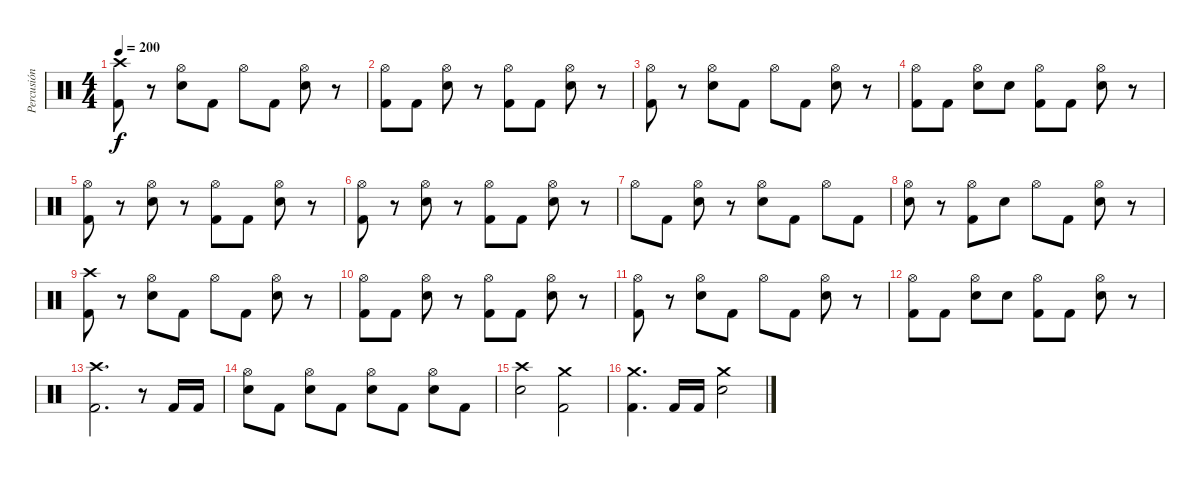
\track ("Percusión" "Percusión") {instrument percussion}
\staff {score}
\articulation defaults
\ts (4 4)
\tempo 200
\clef neutral
\ks c
("Kick (hit) 2" "Crash high (hit)").8{dy f} r.8 ("Snare (hit) 2" "Hi-Hat (open)").8 "Kick (hit) 2".8 "Hi-Hat (open)".8 "Kick (hit) 2".8 ("Snare (hit) 2" "Hi-Hat (open)").8 r.8 |
("Kick (hit) 2" "Hi-Hat (open)").8 "Kick (hit) 2".8 ("Snare (hit) 2" "Hi-Hat (open)").8 r.8 ("Kick (hit) 2" "Hi-Hat (open)").8 "Kick (hit) 2".8 ("Snare (hit) 2" "Hi-Hat (open)").8 r.8 |
("Kick (hit) 2" "Hi-Hat (open)").8 r.8 ("Snare (hit) 2" "Hi-Hat (open)").8 "Kick (hit) 2".8 "Hi-Hat (open)".8 "Kick (hit) 2".8 ("Snare (hit) 2" "Hi-Hat (open)").8 r.8 |
("Kick (hit) 2" "Hi-Hat (open)").8 "Kick (hit) 2".8 ("Snare (hit) 2" "Hi-Hat (open)").8 "Snare (hit) 2".8 ("Kick (hit) 2" "Hi-Hat (open)").8 "Kick (hit) 2".8 ("Snare (hit) 2" "Hi-Hat (open)").8 r.8 |
("Kick (hit) 2" "Hi-Hat (open)").8 r.8 ("Snare (hit) 2" "Hi-Hat (open)").8 r.8 ("Kick (hit) 2" "Hi-Hat (open)").8 "Kick (hit) 2".8 ("Snare (hit) 2" "Hi-Hat (open)").8 r.8 |
("Kick (hit) 2" "Hi-Hat (open)").8 r.8 ("Snare (hit) 2" "Hi-Hat (open)").8 r.8 ("Kick (hit) 2" "Hi-Hat (open)").8 "Kick (hit) 2".8 ("Snare (hit) 2" "Hi-Hat (open)").8 r.8 |
"Hi-Hat (open)".8 "Kick (hit) 2".8 ("Snare (hit) 2" "Hi-Hat (open)").8 r.8 ("Snare (hit) 2" "Hi-Hat (open)").8 "Kick (hit) 2".8 "Hi-Hat (open)".8 "Kick (hit) 2".8 |
("Snare (hit) 2" "Hi-Hat (open)").8 r.8 ("Kick (hit) 2" "Hi-Hat (open)").8 "Snare (hit) 2".8 "Hi-Hat (open)".8 "Kick (hit) 2".8 ("Snare (hit) 2" "Hi-Hat (open)").8 r.8 |
("Kick (hit) 2" "Crash high (hit)").8 r.8 ("Snare (hit) 2" "Hi-Hat (open)").8 "Kick (hit) 2".8 "Hi-Hat (open)".8 "Kick (hit) 2".8 ("Snare (hit) 2" "Hi-Hat (open)").8 r.8 |
("Kick (hit) 2" "Hi-Hat (open)").8 "Kick (hit) 2".8 ("Snare (hit) 2" "Hi-Hat (open)").8 r.8 ("Kick (hit) 2" "Hi-Hat (open)").8 "Kick (hit) 2".8 ("Snare (hit) 2" "Hi-Hat (open)").8 r.8 |
("Kick (hit) 2" "Hi-Hat (open)").8 r.8 ("Snare (hit) 2" "Hi-Hat (open)").8 "Kick (hit) 2".8 "Hi-Hat (open)".8 "Kick (hit) 2".8 ("Snare (hit) 2" "Hi-Hat (open)").8 r.8 |
("Kick (hit) 2" "Hi-Hat (open)").8 "Kick (hit) 2".8 ("Snare (hit) 2" "Hi-Hat (open)").8 "Snare (hit) 2".8 ("Kick (hit) 2" "Hi-Hat (open)").8 "Kick (hit) 2".8 ("Snare (hit) 2" "Hi-Hat (open)").8 r.8 |
("Kick (hit) 2" "Crash high (hit)").2{d} r.8 "Kick (hit) 2".16 "Kick (hit) 2".16 |
("Snare (hit) 2" "Hi-Hat (open)").8 "Kick (hit) 2".8 ("Snare (hit) 2" "Hi-Hat (open)").8 "Kick (hit) 2".8 ("Snare (hit) 2" "Hi-Hat (open)").8 "Kick (hit) 2".8 ("Snare (hit) 2" "Hi-Hat (open)").8 "Kick (hit) 2".8 |
("Snare (hit) 2" "Crash high (hit)").2 ("Kick (hit) 2" "Crash medium (hit)").2 |
("Kick (hit) 2" "Crash medium (hit)").4{d} "Kick (hit) 2".16 "Kick (hit) 2".16 ("Snare (hit) 2" "Crash medium (hit)").2
